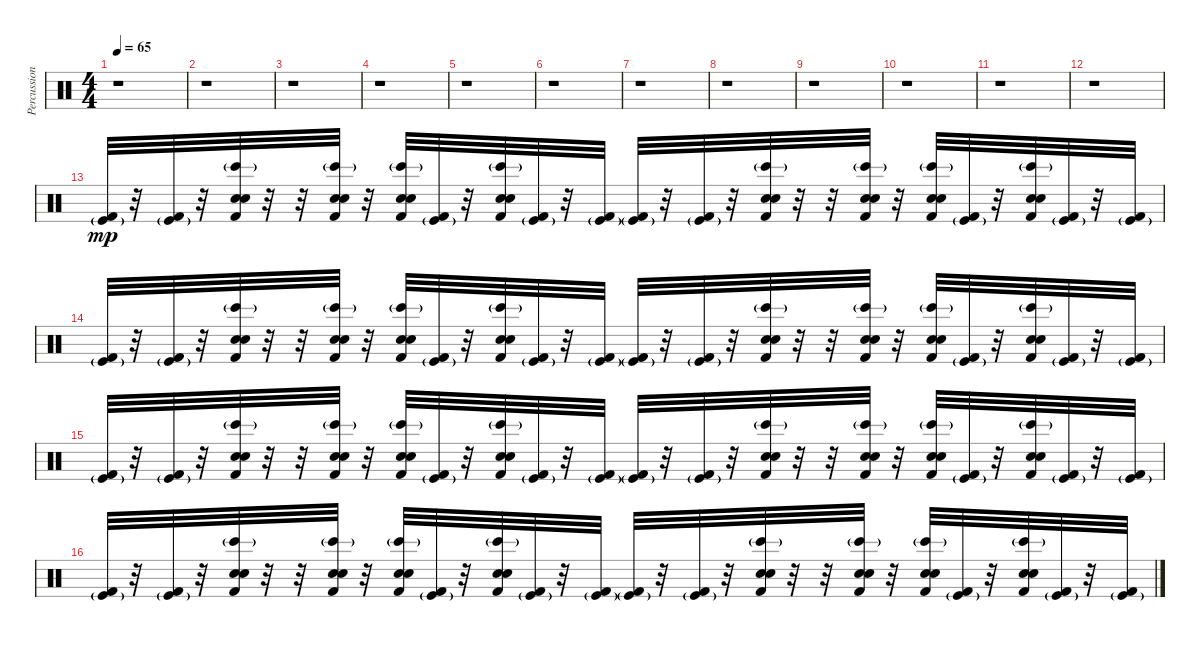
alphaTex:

\track ("Percussion 3" "Percussion") {instrument percussion}
\staff {score}
\articulation defaults
\ts (4 4)
\section ("" "")
\tempo 65
\clef neutral
\ks c
r.1{dy mp} |
r.1 |
r.1 |
r.1 |
r.1 |
r.1 |
\section ("" "")
r.1 |
r.1 |
r.1 |
r.1 |
r.1 |
r.1 |
("Kick (hit)"{g} "Kick (hit) 2").32 r.32 ("Kick (hit)"{g} "Kick (hit) 2").32 r.32 ("Bongo High (hit)"{g} "Snare (hit) 2" "Electric Snare (hit)" "Kick (hit) 2").32 r.32 r.32 ("Bongo High (hit)"{g} "Snare (hit) 2" "Electric Snare (hit)" "Kick (hit) 2").32 r.32 ("Bongo High (hit)"{g} "Snare (hit) 2" "Electric Snare (hit)" "Kick (hit) 2").32 ("Kick (hit)"{g} "Kick (hit) 2").32 r.32 ("Bongo High (hit)"{g} "Snare (hit) 2" "Electric Snare (hit)" "Kick (hit) 2").32 ("Kick (hit)"{g} "Kick (hit) 2").32 r.32 ("Kick (hit)"{g} "Kick (hit) 2").32 ("Kick (hit)"{g} "Kick (hit) 2").32 r.32 ("Kick (hit)"{g} "Kick (hit) 2").32 r.32 ("Bongo High (hit)"{g} "Snare (hit) 2" "Electric Snare (hit)" "Kick (hit) 2").32 r.32 r.32 ("Bongo High (hit)"{g} "Snare (hit) 2" "Electric Snare (hit)" "Kick (hit) 2").32 r.32 ("Bongo High (hit)"{g} "Snare (hit) 2" "Electric Snare (hit)" "Kick (hit) 2").32 ("Kick (hit)"{g} "Kick (hit) 2").32 r.32 ("Bongo High (hit)"{g} "Snare (hit) 2" "Electric Snare (hit)" "Kick (hit) 2").32 ("Kick (hit)"{g} "Kick (hit) 2").32 r.32 ("Kick (hit)"{g} "Kick (hit) 2").32 |
("Kick (hit)"{g} "Kick (hit) 2").32 r.32 ("Kick (hit)"{g} "Kick (hit) 2").32 r.32 ("Bongo High (hit)"{g} "Snare (hit) 2" "Electric Snare (hit)" "Kick (hit) 2").32 r.32 r.32 ("Bongo High (hit)"{g} "Snare (hit) 2" "Electric Snare (hit)" "Kick (hit) 2").32 r.32 ("Bongo High (hit)"{g} "Snare (hit) 2" "Electric Snare (hit)" "Kick (hit) 2").32 ("Kick (hit)"{g} "Kick (hit) 2").32 r.32 ("Bongo High (hit)"{g} "Snare (hit) 2" "Electric Snare (hit)" "Kick (hit) 2").32 ("Kick (hit)"{g} "Kick (hit) 2").32 r.32 ("Kick (hit)"{g} "Kick (hit) 2").32 ("Kick (hit)"{g} "Kick (hit) 2").32 r.32 ("Kick (hit)"{g} "Kick (hit) 2").32 r.32 ("Bongo High (hit)"{g} "Snare (hit) 2" "Electric Snare (hit)" "Kick (hit) 2").32 r.32 r.32 ("Bongo High (hit)"{g} "Snare (hit) 2" "Electric Snare (hit)" "Kick (hit) 2").32 r.32 ("Bongo High (hit)"{g} "Snare (hit) 2" "Electric Snare (hit)" "Kick (hit) 2").32 ("Kick (hit)"{g} "Kick (hit) 2").32 r.32 ("Bongo High (hit)"{g} "Snare (hit) 2" "Electric Snare (hit)" "Kick (hit) 2").32 ("Kick (hit)"{g} "Kick (hit) 2").32 r.32 ("Kick (hit)"{g} "Kick (hit) 2").32 |
("Kick (hit)"{g} "Kick (hit) 2").32 r.32 ("Kick (hit)"{g} "Kick (hit) 2").32 r.32 ("Bongo High (hit)"{g} "Snare (hit) 2" "Electric Snare (hit)" "Kick (hit) 2").32 r.32 r.32 ("Bongo High (hit)"{g} "Snare (hit) 2" "Electric Snare (hit)" "Kick (hit) 2").32 r.32 ("Bongo High (hit)"{g} "Snare (hit) 2" "Electric Snare (hit)" "Kick (hit) 2").32 ("Kick (hit)"{g} "Kick (hit) 2").32 r.32 ("Bongo High (hit)"{g} "Snare (hit) 2" "Electric Snare (hit)" "Kick (hit) 2").32 ("Kick (hit)"{g} "Kick (hit) 2").32 r.32 ("Kick (hit)"{g} "Kick (hit) 2").32 ("Kick (hit)"{g} "Kick (hit) 2").32 r.32 ("Kick (hit)"{g} "Kick (hit) 2").32 r.32 ("Bongo High (hit)"{g} "Snare (hit) 2" "Electric Snare (hit)" "Kick (hit) 2").32 r.32 r.32 ("Bongo High (hit)"{g} "Snare (hit) 2" "Electric Snare (hit)" "Kick (hit) 2").32 r.32 ("Bongo High (hit)"{g} "Snare (hit) 2" "Electric Snare (hit)" "Kick (hit) 2").32 ("Kick (hit)"{g} "Kick (hit) 2").32 r.32 ("Bongo High (hit)"{g} "Snare (hit) 2" "Electric Snare (hit)" "Kick (hit) 2").32 ("Kick (hit)"{g} "Kick (hit) 2").32 r.32 ("Kick (hit)"{g} "Kick (hit) 2").32 |
("Kick (hit)"{g} "Kick (hit) 2").32 r.32 ("Kick (hit)"{g} "Kick (hit) 2").32 r.32 ("Bongo High (hit)"{g} "Snare (hit) 2" "Electric Snare (hit)" "Kick (hit) 2").32 r.32 r.32 ("Bongo High (hit)"{g} "Snare (hit) 2" "Electric Snare (hit)" "Kick (hit) 2").32 r.32 ("Bongo High (hit)"{g} "Snare (hit) 2" "Electric Snare (hit)" "Kick (hit) 2").32 ("Kick (hit)"{g} "Kick (hit) 2").32 r.32 ("Bongo High (hit)"{g} "Snare (hit) 2" "Electric Snare (hit)" "Kick (hit) 2").32 ("Kick (hit)"{g} "Kick (hit) 2").32 r.32 ("Kick (hit)"{g} "Kick (hit) 2").32 ("Kick (hit)"{g} "Kick (hit) 2").32 r.32 ("Kick (hit)"{g} "Kick (hit) 2").32 r.32 ("Bongo High (hit)"{g} "Snare (hit) 2" "Electric Snare (hit)" "Kick (hit) 2").32 r.32 r.32 ("Bongo High (hit)"{g} "Snare (hit) 2" "Electric Snare (hit)" "Kick (hit) 2").32 r.32 ("Bongo High (hit)"{g} "Snare (hit) 2" "Electric Snare (hit)" "Kick (hit) 2").32 ("Kick (hit)"{g} "Kick (hit) 2").32 r.32 ("Bongo High (hit)"{g} "Snare (hit) 2" "Electric Snare (hit)" "Kick (hit) 2").32 ("Kick (hit)"{g} "Kick (hit) 2").32 r.32 ("Kick (hit)"{g} "Kick (hit) 2").32
